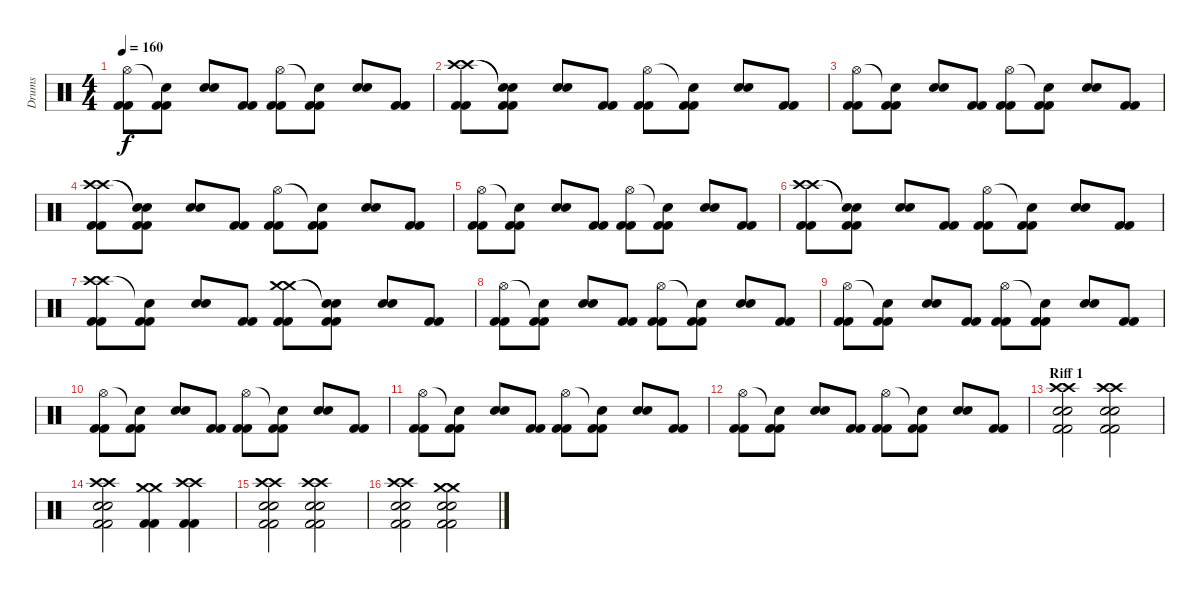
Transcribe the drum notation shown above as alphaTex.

\track ("Drums" "Drums") {instrument percussion}
\staff {score}
\articulation defaults
\ts (4 4)
\tempo 160
\clef neutral
\ks c
("Hi-Hat (open)" "Kick (hit) 2" "Kick (hit) 2").8{dy f} ("Snare (hit)"{t} "Kick (hit) 2" "Kick (hit) 2").8 ("Electric Snare (hit)" "Electric Snare (hit)").8 ("Kick (hit) 2" "Kick (hit) 2").8 ("Hi-Hat (open)" "Kick (hit) 2" "Kick (hit) 2").8 ("Snare (hit)"{t} "Kick (hit) 2" "Kick (hit) 2").8 ("Electric Snare (hit)" "Electric Snare (hit)").8 ("Kick (hit) 2" "Kick (hit) 2").8 |
("Crash high (hit)" "Crash high (hit)" "Kick (hit) 2" "Kick (hit) 2").8 ("Snare (hit)"{t} "Snare (hit)"{t} "Kick (hit) 2" "Kick (hit) 2").8 ("Electric Snare (hit)" "Electric Snare (hit)").8 ("Kick (hit) 2" "Kick (hit) 2").8 ("Hi-Hat (open)" "Kick (hit) 2" "Kick (hit) 2").8 ("Snare (hit)"{t} "Kick (hit) 2" "Kick (hit) 2").8 ("Electric Snare (hit)" "Electric Snare (hit)").8 ("Kick (hit) 2" "Kick (hit) 2").8 |
("Hi-Hat (open)" "Kick (hit) 2" "Kick (hit) 2").8 ("Snare (hit)"{t} "Kick (hit) 2" "Kick (hit) 2").8 ("Electric Snare (hit)" "Electric Snare (hit)").8 ("Kick (hit) 2" "Kick (hit) 2").8 ("Hi-Hat (open)" "Kick (hit) 2" "Kick (hit) 2").8 ("Snare (hit)"{t} "Kick (hit) 2" "Kick (hit) 2").8 ("Electric Snare (hit)" "Electric Snare (hit)").8 ("Kick (hit) 2" "Kick (hit) 2").8 |
("Crash high (hit)" "Crash high (hit)" "Kick (hit) 2" "Kick (hit) 2").8 ("Snare (hit)"{t} "Snare (hit)"{t} "Kick (hit) 2" "Kick (hit) 2").8 ("Electric Snare (hit)" "Electric Snare (hit)").8 ("Kick (hit) 2" "Kick (hit) 2").8 ("Hi-Hat (open)" "Kick (hit) 2" "Kick (hit) 2").8 ("Snare (hit)"{t} "Kick (hit) 2" "Kick (hit) 2").8 ("Electric Snare (hit)" "Electric Snare (hit)").8 ("Kick (hit) 2" "Kick (hit) 2").8 |
("Hi-Hat (open)" "Kick (hit) 2" "Kick (hit) 2").8 ("Snare (hit)"{t} "Kick (hit) 2" "Kick (hit) 2").8 ("Electric Snare (hit)" "Electric Snare (hit)").8 ("Kick (hit) 2" "Kick (hit) 2").8 ("Hi-Hat (open)" "Kick (hit) 2" "Kick (hit) 2").8 ("Snare (hit)"{t} "Kick (hit) 2" "Kick (hit) 2").8 ("Electric Snare (hit)" "Electric Snare (hit)").8 ("Kick (hit) 2" "Kick (hit) 2").8 |
("Crash high (hit)" "Crash high (hit)" "Kick (hit) 2" "Kick (hit) 2").8 ("Snare (hit)"{t} "Snare (hit)"{t} "Kick (hit) 2" "Kick (hit) 2").8 ("Electric Snare (hit)" "Electric Snare (hit)").8 ("Kick (hit) 2" "Kick (hit) 2").8 ("Hi-Hat (open)" "Kick (hit) 2" "Kick (hit) 2").8 ("Snare (hit)"{t} "Kick (hit) 2" "Kick (hit) 2").8 ("Electric Snare (hit)" "Electric Snare (hit)").8 ("Kick (hit) 2" "Kick (hit) 2").8 |
("Crash high (hit)" "Crash high (hit)" "Kick (hit) 2" "Kick (hit) 2").8 ("Snare (hit)"{t} "Kick (hit) 2" "Kick (hit) 2").8 ("Electric Snare (hit)" "Electric Snare (hit)").8 ("Kick (hit) 2" "Kick (hit) 2").8 ("Crash medium (hit)" "Crash medium (hit)" "Kick (hit) 2" "Kick (hit) 2").8 ("Snare (hit)"{t} "Snare (hit)"{t} "Kick (hit) 2" "Kick (hit) 2").8 ("Electric Snare (hit)" "Electric Snare (hit)").8 ("Kick (hit) 2" "Kick (hit) 2").8 |
("Hi-Hat (open)" "Kick (hit) 2" "Kick (hit) 2").8 ("Snare (hit)"{t} "Kick (hit) 2" "Kick (hit) 2").8 ("Electric Snare (hit)" "Electric Snare (hit)").8 ("Kick (hit) 2" "Kick (hit) 2").8 ("Hi-Hat (open)" "Kick (hit) 2" "Kick (hit) 2").8 ("Snare (hit)"{t} "Kick (hit) 2" "Kick (hit) 2").8 ("Electric Snare (hit)" "Electric Snare (hit)").8 ("Kick (hit) 2" "Kick (hit) 2").8 |
("Hi-Hat (open)" "Kick (hit) 2" "Kick (hit) 2").8 ("Snare (hit)"{t} "Kick (hit) 2" "Kick (hit) 2").8 ("Electric Snare (hit)" "Electric Snare (hit)").8 ("Kick (hit) 2" "Kick (hit) 2").8 ("Hi-Hat (open)" "Kick (hit) 2" "Kick (hit) 2").8 ("Snare (hit)"{t} "Kick (hit) 2" "Kick (hit) 2").8 ("Electric Snare (hit)" "Electric Snare (hit)").8 ("Kick (hit) 2" "Kick (hit) 2").8 |
("Hi-Hat (open)" "Kick (hit) 2" "Kick (hit) 2").8 ("Snare (hit)"{t} "Kick (hit) 2" "Kick (hit) 2").8 ("Electric Snare (hit)" "Electric Snare (hit)").8 ("Kick (hit) 2" "Kick (hit) 2").8 ("Hi-Hat (open)" "Kick (hit) 2" "Kick (hit) 2").8 ("Snare (hit)"{t} "Kick (hit) 2" "Kick (hit) 2").8 ("Electric Snare (hit)" "Electric Snare (hit)").8 ("Kick (hit) 2" "Kick (hit) 2").8 |
("Hi-Hat (open)" "Kick (hit) 2" "Kick (hit) 2").8 ("Snare (hit)"{t} "Kick (hit) 2" "Kick (hit) 2").8 ("Electric Snare (hit)" "Electric Snare (hit)").8 ("Kick (hit) 2" "Kick (hit) 2").8 ("Hi-Hat (open)" "Kick (hit) 2" "Kick (hit) 2").8 ("Snare (hit)"{t} "Kick (hit) 2" "Kick (hit) 2").8 ("Electric Snare (hit)" "Electric Snare (hit)").8 ("Kick (hit) 2" "Kick (hit) 2").8 |
("Hi-Hat (open)" "Kick (hit) 2" "Kick (hit) 2").8 ("Snare (hit)"{t} "Kick (hit) 2" "Kick (hit) 2").8 ("Electric Snare (hit)" "Electric Snare (hit)").8 ("Kick (hit) 2" "Kick (hit) 2").8 ("Hi-Hat (open)" "Kick (hit) 2" "Kick (hit) 2").8 ("Snare (hit)"{t} "Kick (hit) 2" "Kick (hit) 2").8 ("Electric Snare (hit)" "Electric Snare (hit)").8 ("Kick (hit) 2" "Kick (hit) 2").8 |
\section ("" "Riff 1")
("Crash high (hit)" "Crash high (hit)" "Snare (hit) 2" "Snare (hit) 2" "Kick (hit) 2" "Kick (hit) 2").2 ("Crash high (hit)" "Crash high (hit)" "Snare (hit) 2" "Snare (hit) 2" "Kick (hit) 2" "Kick (hit) 2").2 |
("Crash high (hit)" "Crash high (hit)" "Snare (hit) 2" "Snare (hit) 2" "Kick (hit) 2" "Kick (hit) 2").2 ("Crash medium (hit)" "Crash medium (hit)" "Kick (hit) 2" "Kick (hit) 2").4 ("Crash high (hit)" "Crash high (hit)" "Kick (hit) 2" "Kick (hit) 2").4 |
("Crash high (hit)" "Crash high (hit)" "Snare (hit) 2" "Snare (hit) 2" "Kick (hit) 2" "Kick (hit) 2").2 ("Crash high (hit)" "Crash high (hit)" "Snare (hit) 2" "Snare (hit) 2" "Kick (hit) 2" "Kick (hit) 2").2 |
("Crash high (hit)" "Crash high (hit)" "Snare (hit) 2" "Snare (hit) 2" "Kick (hit) 2" "Kick (hit) 2").2 ("Crash medium (hit)" "Crash medium (hit)" "Snare (hit) 2" "Snare (hit) 2" "Kick (hit) 2" "Kick (hit) 2").2
